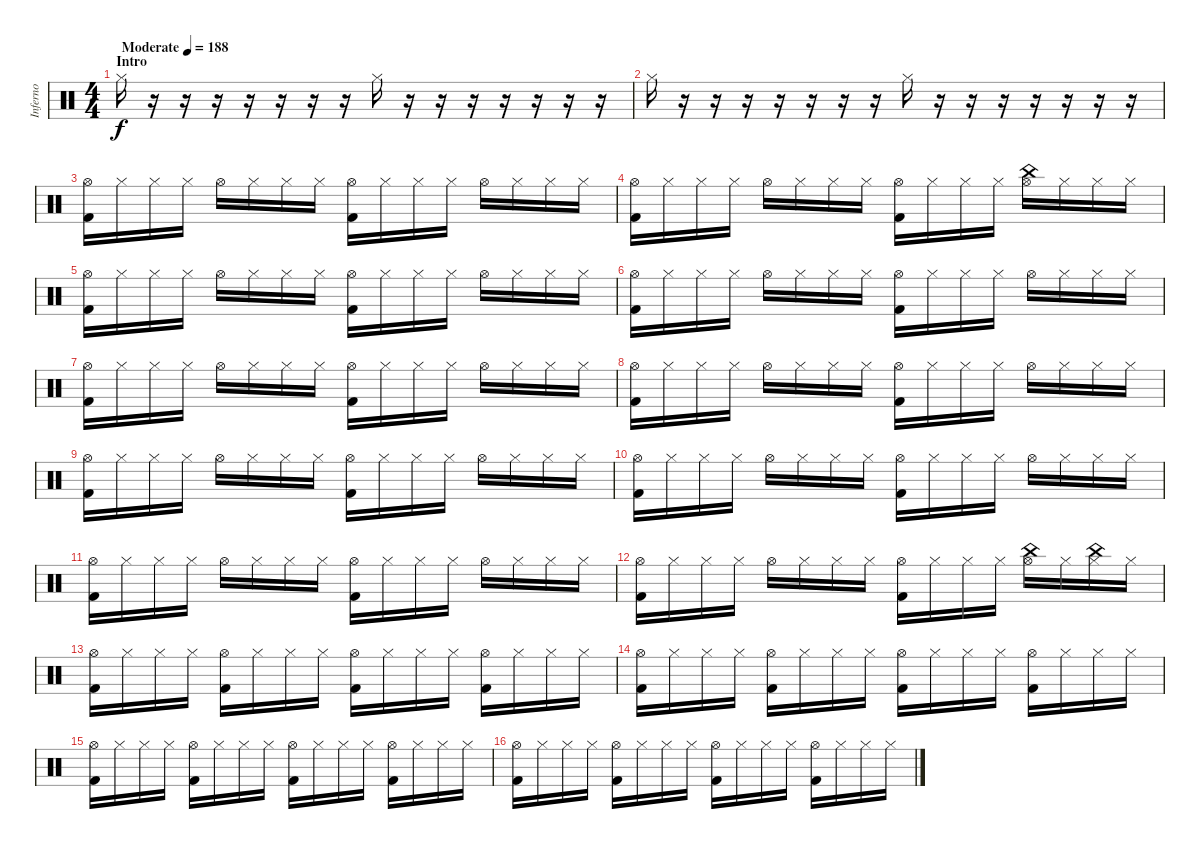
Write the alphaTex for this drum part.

\track ("Inferno" "Inferno") {instrument percussion}
\staff {score}
\articulation defaults
\ts (4 4)
\section ("" "Intro")
\tempo (188 "Moderate")
\clef neutral
\ks c "Hi-Hat (closed)".16{dy f}
r.16 r.16 r.16 r.16 r.16 r.16 r.16 "Hi-Hat (closed)".16 r.16 r.16 r.16 r.16 r.16 r.16 r.16 |
"Hi-Hat (closed)".16 r.16 r.16 r.16 r.16 r.16 r.16 r.16 "Hi-Hat (closed)".16 r.16 r.16 r.16 r.16 r.16 r.16 r.16 |
("Hi-Hat (open)" "Kick (hit) 2").16 "Hi-Hat (closed)".16 "Hi-Hat (closed)".16 "Hi-Hat (closed)".16 "Hi-Hat (open)".16 "Hi-Hat (closed)".16 "Hi-Hat (closed)".16 "Hi-Hat (closed)".16 ("Hi-Hat (open)" "Kick (hit) 2").16 "Hi-Hat (closed)".16 "Hi-Hat (closed)".16 "Hi-Hat (closed)".16 "Hi-Hat (open)".16 "Hi-Hat (closed)".16 "Hi-Hat (closed)".16 "Hi-Hat (closed)".16 |
("Hi-Hat (open)" "Kick (hit) 2").16 "Hi-Hat (closed)".16 "Hi-Hat (closed)".16 "Hi-Hat (closed)".16 "Hi-Hat (open)".16 "Hi-Hat (closed)".16 "Hi-Hat (closed)".16 "Hi-Hat (closed)".16 ("Hi-Hat (open)" "Kick (hit) 2").16 "Hi-Hat (closed)".16 "Hi-Hat (closed)".16 "Hi-Hat (closed)".16 ("China (hit)" "Hi-Hat (open)").16 "Hi-Hat (closed)".16 "Hi-Hat (closed)".16 "Hi-Hat (closed)".16 |
("Hi-Hat (open)" "Kick (hit) 2").16 "Hi-Hat (closed)".16 "Hi-Hat (closed)".16 "Hi-Hat (closed)".16 "Hi-Hat (open)".16 "Hi-Hat (closed)".16 "Hi-Hat (closed)".16 "Hi-Hat (closed)".16 ("Hi-Hat (open)" "Kick (hit) 2").16 "Hi-Hat (closed)".16 "Hi-Hat (closed)".16 "Hi-Hat (closed)".16 "Hi-Hat (open)".16 "Hi-Hat (closed)".16 "Hi-Hat (closed)".16 "Hi-Hat (closed)".16 |
("Hi-Hat (open)" "Kick (hit) 2").16 "Hi-Hat (closed)".16 "Hi-Hat (closed)".16 "Hi-Hat (closed)".16 "Hi-Hat (open)".16 "Hi-Hat (closed)".16 "Hi-Hat (closed)".16 "Hi-Hat (closed)".16 ("Hi-Hat (open)" "Kick (hit) 2").16 "Hi-Hat (closed)".16 "Hi-Hat (closed)".16 "Hi-Hat (closed)".16 "Hi-Hat (open)".16 "Hi-Hat (closed)".16 "Hi-Hat (closed)".16 "Hi-Hat (closed)".16 |
("Hi-Hat (open)" "Kick (hit) 2").16 "Hi-Hat (closed)".16 "Hi-Hat (closed)".16 "Hi-Hat (closed)".16 "Hi-Hat (open)".16 "Hi-Hat (closed)".16 "Hi-Hat (closed)".16 "Hi-Hat (closed)".16 ("Hi-Hat (open)" "Kick (hit) 2").16 "Hi-Hat (closed)".16 "Hi-Hat (closed)".16 "Hi-Hat (closed)".16 "Hi-Hat (open)".16 "Hi-Hat (closed)".16 "Hi-Hat (closed)".16 "Hi-Hat (closed)".16 |
("Hi-Hat (open)" "Kick (hit) 2").16 "Hi-Hat (closed)".16 "Hi-Hat (closed)".16 "Hi-Hat (closed)".16 "Hi-Hat (open)".16 "Hi-Hat (closed)".16 "Hi-Hat (closed)".16 "Hi-Hat (closed)".16 ("Hi-Hat (open)" "Kick (hit) 2").16 "Hi-Hat (closed)".16 "Hi-Hat (closed)".16 "Hi-Hat (closed)".16 "Hi-Hat (open)".16 "Hi-Hat (closed)".16 "Hi-Hat (closed)".16 "Hi-Hat (closed)".16 |
("Hi-Hat (open)" "Kick (hit) 2").16 "Hi-Hat (closed)".16 "Hi-Hat (closed)".16 "Hi-Hat (closed)".16 "Hi-Hat (open)".16 "Hi-Hat (closed)".16 "Hi-Hat (closed)".16 "Hi-Hat (closed)".16 ("Hi-Hat (open)" "Kick (hit) 2").16 "Hi-Hat (closed)".16 "Hi-Hat (closed)".16 "Hi-Hat (closed)".16 "Hi-Hat (open)".16 "Hi-Hat (closed)".16 "Hi-Hat (closed)".16 "Hi-Hat (closed)".16 |
("Hi-Hat (open)" "Kick (hit) 2").16 "Hi-Hat (closed)".16 "Hi-Hat (closed)".16 "Hi-Hat (closed)".16 "Hi-Hat (open)".16 "Hi-Hat (closed)".16 "Hi-Hat (closed)".16 "Hi-Hat (closed)".16 ("Hi-Hat (open)" "Kick (hit) 2").16 "Hi-Hat (closed)".16 "Hi-Hat (closed)".16 "Hi-Hat (closed)".16 "Hi-Hat (open)".16 "Hi-Hat (closed)".16 "Hi-Hat (closed)".16 "Hi-Hat (closed)".16 |
("Hi-Hat (open)" "Kick (hit) 2").16 "Hi-Hat (closed)".16 "Hi-Hat (closed)".16 "Hi-Hat (closed)".16 "Hi-Hat (open)".16 "Hi-Hat (closed)".16 "Hi-Hat (closed)".16 "Hi-Hat (closed)".16 ("Hi-Hat (open)" "Kick (hit) 2").16 "Hi-Hat (closed)".16 "Hi-Hat (closed)".16 "Hi-Hat (closed)".16 "Hi-Hat (open)".16 "Hi-Hat (closed)".16 "Hi-Hat (closed)".16 "Hi-Hat (closed)".16 |
("Hi-Hat (open)" "Kick (hit) 2").16 "Hi-Hat (closed)".16 "Hi-Hat (closed)".16 "Hi-Hat (closed)".16 "Hi-Hat (open)".16 "Hi-Hat (closed)".16 "Hi-Hat (closed)".16 "Hi-Hat (closed)".16 ("Hi-Hat (open)" "Kick (hit) 2").16 "Hi-Hat (closed)".16 "Hi-Hat (closed)".16 "Hi-Hat (closed)".16 ("China (hit)" "Hi-Hat (open)").16 "Hi-Hat (closed)".16 ("China (hit)" "Hi-Hat (closed)").16 "Hi-Hat (closed)".16 |
("Hi-Hat (open)" "Kick (hit) 2").16 "Hi-Hat (closed)".16 "Hi-Hat (closed)".16 "Hi-Hat (closed)".16 ("Hi-Hat (open)" "Kick (hit) 2").16 "Hi-Hat (closed)".16 "Hi-Hat (closed)".16 "Hi-Hat (closed)".16 ("Hi-Hat (open)" "Kick (hit) 2").16 "Hi-Hat (closed)".16 "Hi-Hat (closed)".16 "Hi-Hat (closed)".16 ("Hi-Hat (open)" "Kick (hit) 2").16 "Hi-Hat (closed)".16 "Hi-Hat (closed)".16 "Hi-Hat (closed)".16 |
("Hi-Hat (open)" "Kick (hit) 2").16 "Hi-Hat (closed)".16 "Hi-Hat (closed)".16 "Hi-Hat (closed)".16 ("Hi-Hat (open)" "Kick (hit) 2").16 "Hi-Hat (closed)".16 "Hi-Hat (closed)".16 "Hi-Hat (closed)".16 ("Hi-Hat (open)" "Kick (hit) 2").16 "Hi-Hat (closed)".16 "Hi-Hat (closed)".16 "Hi-Hat (closed)".16 ("Hi-Hat (open)" "Kick (hit) 2").16 "Hi-Hat (closed)".16 "Hi-Hat (closed)".16 "Hi-Hat (closed)".16 |
("Hi-Hat (open)" "Kick (hit) 2").16 "Hi-Hat (closed)".16 "Hi-Hat (closed)".16 "Hi-Hat (closed)".16 ("Hi-Hat (open)" "Kick (hit) 2").16 "Hi-Hat (closed)".16 "Hi-Hat (closed)".16 "Hi-Hat (closed)".16 ("Hi-Hat (open)" "Kick (hit) 2").16 "Hi-Hat (closed)".16 "Hi-Hat (closed)".16 "Hi-Hat (closed)".16 ("Hi-Hat (open)" "Kick (hit) 2").16 "Hi-Hat (closed)".16 "Hi-Hat (closed)".16 "Hi-Hat (closed)".16 |
("Hi-Hat (open)" "Kick (hit) 2").16 "Hi-Hat (closed)".16 "Hi-Hat (closed)".16 "Hi-Hat (closed)".16 ("Hi-Hat (open)" "Kick (hit) 2").16 "Hi-Hat (closed)".16 "Hi-Hat (closed)".16 "Hi-Hat (closed)".16 ("Hi-Hat (open)" "Kick (hit) 2").16 "Hi-Hat (closed)".16 "Hi-Hat (closed)".16 "Hi-Hat (closed)".16 ("Hi-Hat (open)" "Kick (hit) 2").16 "Hi-Hat (closed)".16 "Hi-Hat (closed)".16 "Hi-Hat (closed)".16
